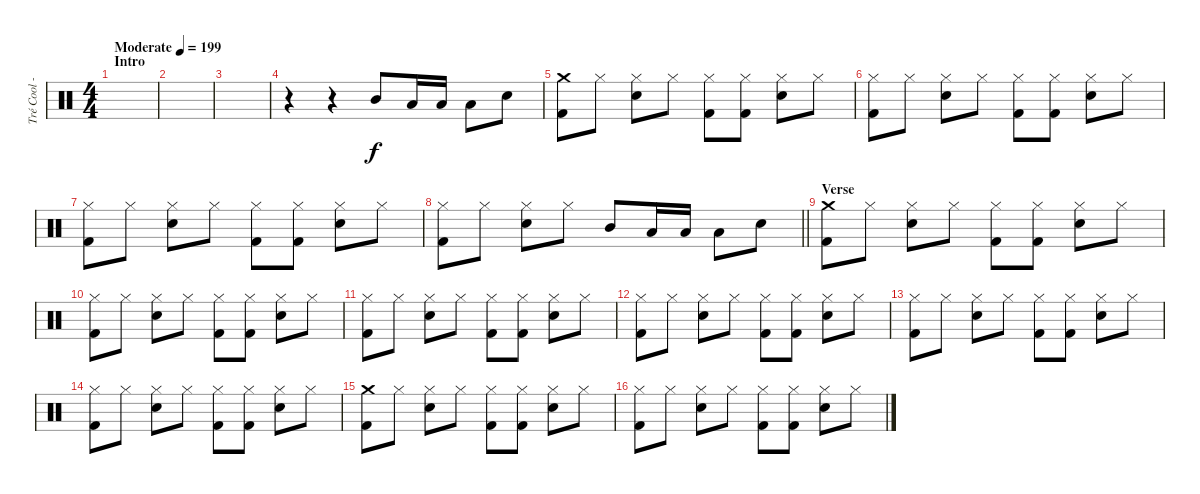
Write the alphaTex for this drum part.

\track ("Tré Cool - Drums" "Tré Cool -") {instrument percussion}
\staff {score}
\articulation defaults
\ts (4 4)
\section ("" "Intro")
\tempo (199 "Moderate")
\clef neutral
\ks c
|
|
|
r.4 r.4 "Mid Tom (hit)".8 "Low Tom (hit)".16 "Low Tom (hit)".16 "Low Tom (hit)".8 "Electric Snare (hit)".8 |
("Crash medium (hit)" "Kick (hit) 2").8 "Hi-Hat (closed)".8 ("Hi-Hat (closed)" "Electric Snare (hit)").8 "Hi-Hat (closed)".8 ("Hi-Hat (closed)" "Kick (hit) 2").8 ("Hi-Hat (closed)" "Kick (hit) 2").8 ("Hi-Hat (closed)" "Electric Snare (hit)").8 "Hi-Hat (closed)".8 |
("Hi-Hat (closed)" "Kick (hit) 2").8 "Hi-Hat (closed)".8 ("Hi-Hat (closed)" "Electric Snare (hit)").8 "Hi-Hat (closed)".8 ("Hi-Hat (closed)" "Kick (hit) 2").8 ("Hi-Hat (closed)" "Kick (hit) 2").8 ("Hi-Hat (closed)" "Electric Snare (hit)").8 "Hi-Hat (closed)".8 |
("Hi-Hat (closed)" "Kick (hit) 2").8 "Hi-Hat (closed)".8 ("Hi-Hat (closed)" "Electric Snare (hit)").8 "Hi-Hat (closed)".8 ("Hi-Hat (closed)" "Kick (hit) 2").8 ("Hi-Hat (closed)" "Kick (hit) 2").8 ("Hi-Hat (closed)" "Electric Snare (hit)").8 "Hi-Hat (closed)".8 |
\barLineRight lightlight
("Hi-Hat (closed)" "Kick (hit) 2").8 "Hi-Hat (closed)".8 ("Hi-Hat (closed)" "Electric Snare (hit)").8 "Hi-Hat (closed)".8 "Mid Tom (hit)".8 "Low Tom (hit)".16 "Low Tom (hit)".16 "Low Tom (hit)".8 "Electric Snare (hit)".8 |
\section ("" "Verse")
("Crash medium (hit)" "Kick (hit) 2").8 "Hi-Hat (closed)".8 ("Hi-Hat (closed)" "Electric Snare (hit)").8 "Hi-Hat (closed)".8 ("Hi-Hat (closed)" "Kick (hit) 2").8 ("Hi-Hat (closed)" "Kick (hit) 2").8 ("Hi-Hat (closed)" "Electric Snare (hit)").8 "Hi-Hat (closed)".8 |
("Hi-Hat (closed)" "Kick (hit) 2").8 "Hi-Hat (closed)".8 ("Hi-Hat (closed)" "Electric Snare (hit)").8 "Hi-Hat (closed)".8 ("Hi-Hat (closed)" "Kick (hit) 2").8 ("Hi-Hat (closed)" "Kick (hit) 2").8 ("Hi-Hat (closed)" "Electric Snare (hit)").8 "Hi-Hat (closed)".8 |
("Hi-Hat (closed)" "Kick (hit) 2").8 "Hi-Hat (closed)".8 ("Hi-Hat (closed)" "Electric Snare (hit)").8 "Hi-Hat (closed)".8 ("Hi-Hat (closed)" "Kick (hit) 2").8 ("Hi-Hat (closed)" "Kick (hit) 2").8 ("Hi-Hat (closed)" "Electric Snare (hit)").8 "Hi-Hat (closed)".8 |
("Hi-Hat (closed)" "Kick (hit) 2").8 "Hi-Hat (closed)".8 ("Hi-Hat (closed)" "Electric Snare (hit)").8 "Hi-Hat (closed)".8 ("Hi-Hat (closed)" "Kick (hit) 2").8 ("Hi-Hat (closed)" "Kick (hit) 2").8 ("Hi-Hat (closed)" "Electric Snare (hit)").8 "Hi-Hat (closed)".8 |
("Hi-Hat (closed)" "Kick (hit) 2").8 "Hi-Hat (closed)".8 ("Hi-Hat (closed)" "Electric Snare (hit)").8 "Hi-Hat (closed)".8 ("Hi-Hat (closed)" "Kick (hit) 2").8 ("Hi-Hat (closed)" "Kick (hit) 2").8 ("Hi-Hat (closed)" "Electric Snare (hit)").8 "Hi-Hat (closed)".8 |
("Hi-Hat (closed)" "Kick (hit) 2").8 "Hi-Hat (closed)".8 ("Hi-Hat (closed)" "Electric Snare (hit)").8 "Hi-Hat (closed)".8 ("Hi-Hat (closed)" "Kick (hit) 2").8 ("Hi-Hat (closed)" "Kick (hit) 2").8 ("Hi-Hat (closed)" "Electric Snare (hit)").8 "Hi-Hat (closed)".8 |
("Crash medium (hit)" "Kick (hit) 2").8 "Hi-Hat (closed)".8 ("Hi-Hat (closed)" "Electric Snare (hit)").8 "Hi-Hat (closed)".8 ("Hi-Hat (closed)" "Kick (hit) 2").8 ("Hi-Hat (closed)" "Kick (hit) 2").8 ("Hi-Hat (closed)" "Electric Snare (hit)").8 "Hi-Hat (closed)".8 |
("Hi-Hat (closed)" "Kick (hit) 2").8 "Hi-Hat (closed)".8 ("Hi-Hat (closed)" "Electric Snare (hit)").8 "Hi-Hat (closed)".8 ("Hi-Hat (closed)" "Kick (hit) 2").8 ("Hi-Hat (closed)" "Kick (hit) 2").8 ("Hi-Hat (closed)" "Electric Snare (hit)").8 "Hi-Hat (closed)".8
